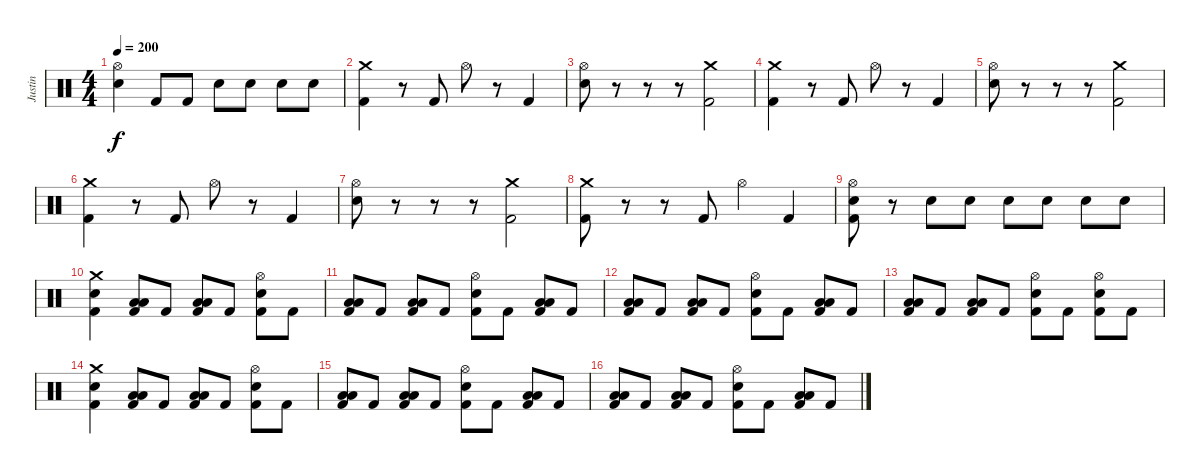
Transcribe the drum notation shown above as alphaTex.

\track ("Justin" "Justin") {instrument percussion}
\staff {score}
\articulation defaults
\ts (4 4)
\tempo 200
\clef neutral
\ks c
("Hi-Hat (open)" "Electric Snare (hit)").4{dy f} "Kick (hit) 2".8 "Kick (hit) 2".8 "Electric Snare (hit)".8 "Electric Snare (hit)".8 "Electric Snare (hit)".8 "Electric Snare (hit)".8 |
("Crash medium (hit)" "Kick (hit) 2").4 r.8 "Kick (hit) 2".8 "Hi-Hat (open)".8 r.8 "Kick (hit) 2".4 |
("Hi-Hat (open)" "Electric Snare (hit)").8 r.8 r.8 r.8 ("Crash medium (hit)" "Kick (hit) 2").2 |
("Crash medium (hit)" "Kick (hit) 2").4 r.8 "Kick (hit) 2".8 "Hi-Hat (open)".8 r.8 "Kick (hit) 2".4 |
("Hi-Hat (open)" "Electric Snare (hit)").8 r.8 r.8 r.8 ("Crash medium (hit)" "Kick (hit) 2").2 |
("Crash medium (hit)" "Kick (hit) 2").4 r.8 "Kick (hit) 2".8 "Hi-Hat (open)".8 r.8 "Kick (hit) 2".4 |
("Hi-Hat (open)" "Electric Snare (hit)").8 r.8 r.8 r.8 ("Crash medium (hit)" "Kick (hit) 2").2 |
("Crash medium (hit)" "Kick (hit) 2").8 r.8 r.8 "Kick (hit) 2".8 "Hi-Hat (open)".4 "Kick (hit) 2".4 |
("Hi-Hat (open)" "Electric Snare (hit)" "Kick (hit) 2").8 r.8 "Electric Snare (hit)".8 "Electric Snare (hit)".8 "Electric Snare (hit)".8 "Electric Snare (hit)".8 "Electric Snare (hit)".8 "Electric Snare (hit)".8 |
("Crash medium (hit)" "Electric Snare (hit)" "Kick (hit) 2").4 ("Low Tom (hit)" "Low Floor Tom (hit)" "Kick (hit) 2").8 "Kick (hit) 2".8 ("Low Tom (hit)" "Low Floor Tom (hit)" "Kick (hit) 2").8 "Kick (hit) 2".8 ("Hi-Hat (open)" "Electric Snare (hit)" "Kick (hit) 2").8 "Kick (hit) 2".8 |
("Low Tom (hit)" "Low Floor Tom (hit)" "Kick (hit) 2").8 "Kick (hit) 2".8 ("Low Tom (hit)" "Low Floor Tom (hit)" "Kick (hit) 2").8 "Kick (hit) 2".8 ("Hi-Hat (open)" "Electric Snare (hit)" "Kick (hit) 2").8 "Kick (hit) 2".8 ("Low Tom (hit)" "Low Floor Tom (hit)" "Kick (hit) 2").8 "Kick (hit) 2".8 |
("Low Tom (hit)" "Low Floor Tom (hit)" "Kick (hit) 2").8 "Kick (hit) 2".8 ("Low Tom (hit)" "Low Floor Tom (hit)" "Kick (hit) 2").8 "Kick (hit) 2".8 ("Hi-Hat (open)" "Electric Snare (hit)" "Kick (hit) 2").8 "Kick (hit) 2".8 ("Low Tom (hit)" "Low Floor Tom (hit)" "Kick (hit) 2").8 "Kick (hit) 2".8 |
("Low Tom (hit)" "Low Floor Tom (hit)" "Kick (hit) 2").8 "Kick (hit) 2".8 ("Low Tom (hit)" "Low Floor Tom (hit)" "Kick (hit) 2").8 "Kick (hit) 2".8 ("Hi-Hat (open)" "Electric Snare (hit)" "Kick (hit) 2").8 "Kick (hit) 2".8 ("Hi-Hat (open)" "Electric Snare (hit)" "Kick (hit) 2").8 "Kick (hit) 2".8 |
("Crash medium (hit)" "Electric Snare (hit)" "Kick (hit) 2").4 ("Low Tom (hit)" "Low Floor Tom (hit)" "Kick (hit) 2").8 "Kick (hit) 2".8 ("Low Tom (hit)" "Low Floor Tom (hit)" "Kick (hit) 2").8 "Kick (hit) 2".8 ("Hi-Hat (open)" "Electric Snare (hit)" "Kick (hit) 2").8 "Kick (hit) 2".8 |
("Low Tom (hit)" "Low Floor Tom (hit)" "Kick (hit) 2").8 "Kick (hit) 2".8 ("Low Tom (hit)" "Low Floor Tom (hit)" "Kick (hit) 2").8 "Kick (hit) 2".8 ("Hi-Hat (open)" "Electric Snare (hit)" "Kick (hit) 2").8 "Kick (hit) 2".8 ("Low Tom (hit)" "Low Floor Tom (hit)" "Kick (hit) 2").8 "Kick (hit) 2".8 |
("Low Tom (hit)" "Low Floor Tom (hit)" "Kick (hit) 2").8 "Kick (hit) 2".8 ("Low Tom (hit)" "Low Floor Tom (hit)" "Kick (hit) 2").8 "Kick (hit) 2".8 ("Hi-Hat (open)" "Electric Snare (hit)" "Kick (hit) 2").8 "Kick (hit) 2".8 ("Low Tom (hit)" "Low Floor Tom (hit)" "Kick (hit) 2").8 "Kick (hit) 2".8
